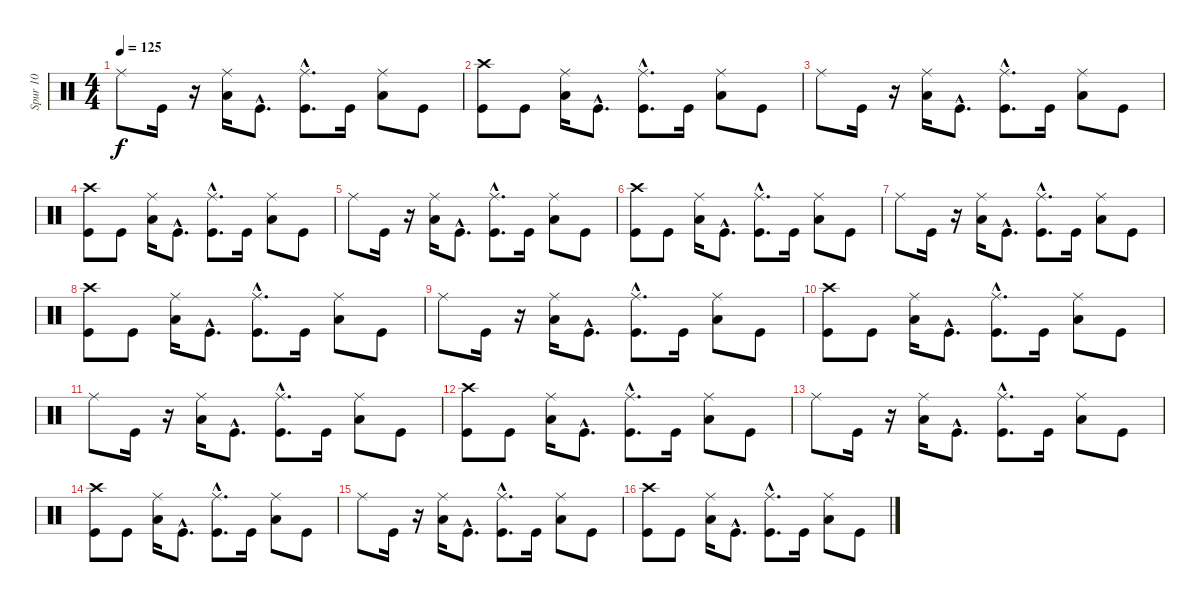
\track ("Spur 10" "Spur 10") {instrument percussion}
\staff {score}
\articulation defaults
\ts (4 4)
\tempo 125
\clef neutral
\ks c "Ride (middle)".8{dy f} "Kick (hit)".16
r.16 ("Low Tom (hit)" "Ride (middle)").16 "Kick (hit)"{hac}.8{d} ("Kick (hit)"{hac} "Ride (middle)").8{d} "Kick (hit)".16 ("Low Tom (hit)" "Ride (middle)").8 "Kick (hit)".8 |
("Kick (hit)" "Crash high (hit)").8 "Kick (hit)".8 ("Ride (middle)" "Low Tom (hit)").16 "Kick (hit)"{hac}.8{d} ("Ride (middle)" "Kick (hit)"{hac}).8{d} "Kick (hit)".16 ("Low Tom (hit)" "Ride (middle)").8 "Kick (hit)".8 |
"Ride (middle)".8 "Kick (hit)".16 r.16 ("Ride (middle)" "Low Tom (hit)").16 "Kick (hit)"{hac}.8{d} ("Kick (hit)"{hac} "Ride (middle)").8{d} "Kick (hit)".16 ("Low Tom (hit)" "Ride (middle)").8 "Kick (hit)".8 |
("Kick (hit)" "Crash high (hit)").8 "Kick (hit)".8 ("Ride (middle)" "Low Tom (hit)").16 "Kick (hit)"{hac}.8{d} ("Kick (hit)"{hac} "Ride (middle)").8{d} "Kick (hit)".16 ("Ride (middle)" "Low Tom (hit)").8 "Kick (hit)".8 |
"Ride (middle)".8 "Kick (hit)".16 r.16 ("Ride (middle)" "Low Tom (hit)").16 "Kick (hit)"{hac}.8{d} ("Ride (middle)" "Kick (hit)"{hac}).8{d} "Kick (hit)".16 ("Ride (middle)" "Low Tom (hit)").8 "Kick (hit)".8 |
("Kick (hit)" "Crash high (hit)").8 "Kick (hit)".8 ("Ride (middle)" "Low Tom (hit)").16 "Kick (hit)"{hac}.8{d} ("Kick (hit)"{hac} "Ride (middle)").8{d} "Kick (hit)".16 ("Low Tom (hit)" "Ride (middle)").8 "Kick (hit)".8 |
"Ride (middle)".8 "Kick (hit)".16 r.16 ("Low Tom (hit)" "Ride (middle)").16 "Kick (hit)"{hac}.8{d} ("Kick (hit)"{hac} "Ride (middle)").8{d} "Kick (hit)".16 ("Low Tom (hit)" "Ride (middle)").8 "Kick (hit)".8 |
("Crash high (hit)" "Kick (hit)").8 "Kick (hit)".8 ("Ride (middle)" "Low Tom (hit)").16 "Kick (hit)"{hac}.8{d} ("Kick (hit)"{hac} "Ride (middle)").8{d} "Kick (hit)".16 ("Ride (middle)" "Low Tom (hit)").8 "Kick (hit)".8 |
"Ride (middle)".8 "Kick (hit)".16 r.16 ("Low Tom (hit)" "Ride (middle)").16 "Kick (hit)"{hac}.8{d} ("Kick (hit)"{hac} "Ride (middle)").8{d} "Kick (hit)".16 ("Low Tom (hit)" "Ride (middle)").8 "Kick (hit)".8 |
("Crash high (hit)" "Kick (hit)").8 "Kick (hit)".8 ("Ride (middle)" "Low Tom (hit)").16 "Kick (hit)"{hac}.8{d} ("Ride (middle)" "Kick (hit)"{hac}).8{d} "Kick (hit)".16 ("Ride (middle)" "Low Tom (hit)").8 "Kick (hit)".8 |
"Ride (middle)".8 "Kick (hit)".16 r.16 ("Low Tom (hit)" "Ride (middle)").16 "Kick (hit)"{hac}.8{d} ("Kick (hit)"{hac} "Ride (middle)").8{d} "Kick (hit)".16 ("Ride (middle)" "Low Tom (hit)").8 "Kick (hit)".8 |
("Crash high (hit)" "Kick (hit)").8 "Kick (hit)".8 ("Ride (middle)" "Low Tom (hit)").16 "Kick (hit)"{hac}.8{d} ("Ride (middle)" "Kick (hit)"{hac}).8{d} "Kick (hit)".16 ("Low Tom (hit)" "Ride (middle)").8 "Kick (hit)".8 |
"Ride (middle)".8 "Kick (hit)".16 r.16 ("Ride (middle)" "Low Tom (hit)").16 "Kick (hit)"{hac}.8{d} ("Kick (hit)"{hac} "Ride (middle)").8{d} "Kick (hit)".16 ("Low Tom (hit)" "Ride (middle)").8 "Kick (hit)".8 |
("Kick (hit)" "Crash high (hit)").8 "Kick (hit)".8 ("Ride (middle)" "Low Tom (hit)").16 "Kick (hit)"{hac}.8{d} ("Ride (middle)" "Kick (hit)"{hac}).8{d} "Kick (hit)".16 ("Ride (middle)" "Low Tom (hit)").8 "Kick (hit)".8 |
"Ride (middle)".8 "Kick (hit)".16 r.16 ("Low Tom (hit)" "Ride (middle)").16 "Kick (hit)"{hac}.8{d} ("Kick (hit)"{hac} "Ride (middle)").8{d} "Kick (hit)".16 ("Ride (middle)" "Low Tom (hit)").8 "Kick (hit)".8 |
("Kick (hit)" "Crash high (hit)").8 "Kick (hit)".8 ("Ride (middle)" "Low Tom (hit)").16 "Kick (hit)"{hac}.8{d} ("Kick (hit)"{hac} "Ride (middle)").8{d} "Kick (hit)".16 ("Ride (middle)" "Low Tom (hit)").8 "Kick (hit)".8
